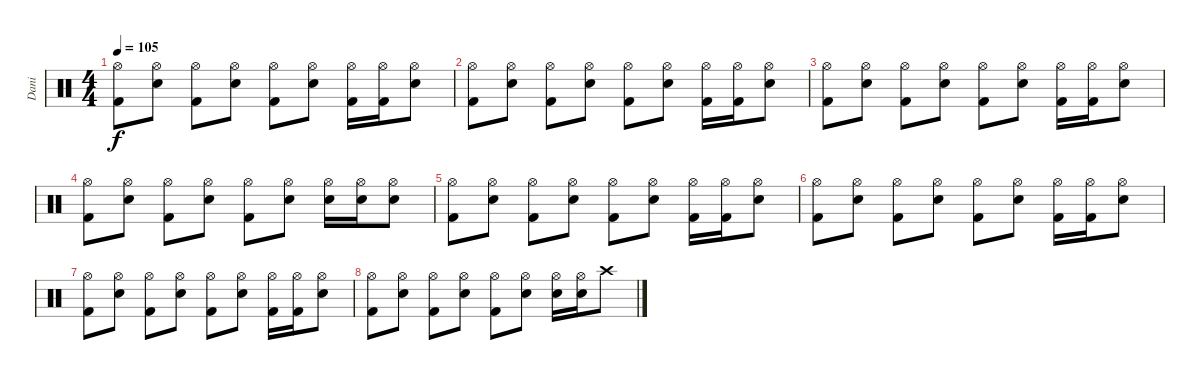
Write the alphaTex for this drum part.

\track ("Dani" "Dani") {instrument percussion}
\staff {score}
\articulation defaults
\ts (4 4)
\tempo 105
\clef neutral
\ks c
("Kick (hit) 2" "Hi-Hat (open)").8{dy f} ("Snare (hit) 2" "Hi-Hat (open)").8 ("Kick (hit) 2" "Hi-Hat (open)").8 ("Snare (hit) 2" "Hi-Hat (open)").8 ("Kick (hit) 2" "Hi-Hat (open)").8 ("Snare (hit) 2" "Hi-Hat (open)").8 ("Kick (hit) 2" "Hi-Hat (open)").16 ("Kick (hit) 2" "Hi-Hat (open)").16 ("Snare (hit) 2" "Hi-Hat (open)").8 |
("Kick (hit) 2" "Hi-Hat (open)").8 ("Snare (hit) 2" "Hi-Hat (open)").8 ("Kick (hit) 2" "Hi-Hat (open)").8 ("Snare (hit) 2" "Hi-Hat (open)").8 ("Kick (hit) 2" "Hi-Hat (open)").8 ("Snare (hit) 2" "Hi-Hat (open)").8 ("Kick (hit) 2" "Hi-Hat (open)").16 ("Kick (hit) 2" "Hi-Hat (open)").16 ("Snare (hit) 2" "Hi-Hat (open)").8 |
("Kick (hit) 2" "Hi-Hat (open)").8 ("Snare (hit) 2" "Hi-Hat (open)").8 ("Kick (hit) 2" "Hi-Hat (open)").8 ("Snare (hit) 2" "Hi-Hat (open)").8 ("Kick (hit) 2" "Hi-Hat (open)").8 ("Snare (hit) 2" "Hi-Hat (open)").8 ("Kick (hit) 2" "Hi-Hat (open)").16 ("Kick (hit) 2" "Hi-Hat (open)").16 ("Snare (hit) 2" "Hi-Hat (open)").8 |
("Kick (hit) 2" "Hi-Hat (open)").8 ("Snare (hit) 2" "Hi-Hat (open)").8 ("Kick (hit) 2" "Hi-Hat (open)").8 ("Snare (hit) 2" "Hi-Hat (open)").8 ("Kick (hit) 2" "Hi-Hat (open)").8 ("Snare (hit) 2" "Hi-Hat (open)").8 ("Snare (hit) 2" "Hi-Hat (open)").16 ("Snare (hit) 2" "Hi-Hat (open)").16 ("Snare (hit) 2" "Hi-Hat (open)").8 |
("Kick (hit) 2" "Hi-Hat (open)").8 ("Snare (hit) 2" "Hi-Hat (open)").8 ("Kick (hit) 2" "Hi-Hat (open)").8 ("Snare (hit) 2" "Hi-Hat (open)").8 ("Kick (hit) 2" "Hi-Hat (open)").8 ("Snare (hit) 2" "Hi-Hat (open)").8 ("Kick (hit) 2" "Hi-Hat (open)").16 ("Kick (hit) 2" "Hi-Hat (open)").16 ("Snare (hit) 2" "Hi-Hat (open)").8 |
("Kick (hit) 2" "Hi-Hat (open)").8 ("Snare (hit) 2" "Hi-Hat (open)").8 ("Kick (hit) 2" "Hi-Hat (open)").8 ("Snare (hit) 2" "Hi-Hat (open)").8 ("Kick (hit) 2" "Hi-Hat (open)").8 ("Snare (hit) 2" "Hi-Hat (open)").8 ("Kick (hit) 2" "Hi-Hat (open)").16 ("Kick (hit) 2" "Hi-Hat (open)").16 ("Snare (hit) 2" "Hi-Hat (open)").8 |
("Kick (hit) 2" "Hi-Hat (open)").8 ("Snare (hit) 2" "Hi-Hat (open)").8 ("Kick (hit) 2" "Hi-Hat (open)").8 ("Snare (hit) 2" "Hi-Hat (open)").8 ("Kick (hit) 2" "Hi-Hat (open)").8 ("Snare (hit) 2" "Hi-Hat (open)").8 ("Kick (hit) 2" "Hi-Hat (open)").16 ("Kick (hit) 2" "Hi-Hat (open)").16 ("Snare (hit) 2" "Hi-Hat (open)").8 |
("Kick (hit) 2" "Hi-Hat (open)").8 ("Snare (hit) 2" "Hi-Hat (open)").8 ("Kick (hit) 2" "Hi-Hat (open)").8 ("Snare (hit) 2" "Hi-Hat (open)").8 ("Kick (hit) 2" "Hi-Hat (open)").8 ("Snare (hit) 2" "Hi-Hat (open)").8 ("Snare (hit) 2" "Hi-Hat (open)").16 ("Snare (hit) 2" "Hi-Hat (open)").16 "Crash high (hit)".8
